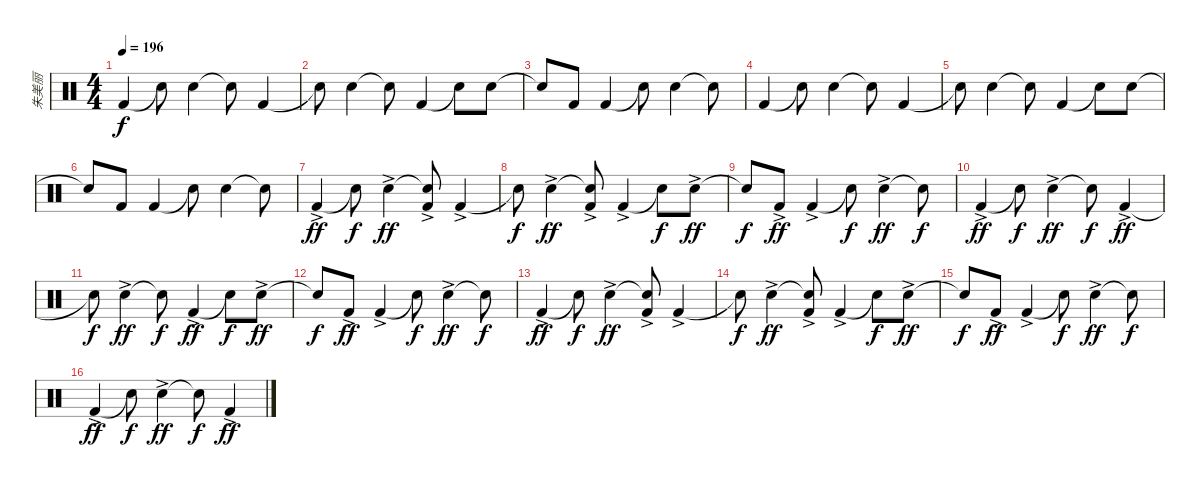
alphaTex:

\track ("朱美丽" "朱美丽") {instrument percussion}
\staff {score}
\articulation defaults
\ts (4 4)
\tempo 196
\clef neutral
\ks c "Kick (hit) 2".4{dy f} "Snare (hit)"{t}.8 "Electric Snare (hit)".4 "Snare (hit)"{t}.8 "Kick (hit) 2".4
|
"Snare (hit)"{t}.8 "Electric Snare (hit)".4 "Snare (hit)"{t}.8 "Kick (hit) 2".4 "Snare (hit)"{t}.8 "Electric Snare (hit)".8 |
"Snare (hit)"{t}.8 "Kick (hit) 2".8 "Kick (hit) 2".4 "Snare (hit)"{t}.8 "Electric Snare (hit)".4 "Snare (hit)"{t}.8 |
"Kick (hit) 2".4 "Snare (hit)"{t}.8 "Electric Snare (hit)".4 "Snare (hit)"{t}.8 "Kick (hit) 2".4 |
"Snare (hit)"{t}.8 "Electric Snare (hit)".4 "Snare (hit)"{t}.8 "Kick (hit) 2".4 "Snare (hit)"{t}.8 "Electric Snare (hit)".8 |
"Snare (hit)"{t}.8 "Kick (hit) 2".8 "Kick (hit) 2".4 "Snare (hit)"{t}.8 "Electric Snare (hit)".4 "Snare (hit)"{t}.8 |
"Kick (hit) 2"{ac}.4{dy ff} "Snare (hit)"{t}.8{dy f} "Electric Snare (hit)"{ac}.4{dy ff} ("Snare (hit)"{t} "Kick (hit) 2"{ac}).8 "Kick (hit) 2"{ac}.4 |
"Snare (hit)"{t}.8{dy f} "Electric Snare (hit)"{ac}.4{dy ff} ("Snare (hit)"{t} "Kick (hit) 2"{ac}).8 "Kick (hit) 2"{ac}.4 "Snare (hit)"{t}.8{dy f} "Electric Snare (hit)"{ac}.8{dy ff} |
"Snare (hit)"{t}.8{dy f} "Kick (hit) 2"{ac}.8{dy ff} "Kick (hit) 2"{ac}.4 "Snare (hit)"{t}.8{dy f} "Electric Snare (hit)"{ac}.4{dy ff} "Snare (hit)"{t}.8{dy f} |
"Kick (hit) 2"{ac}.4{dy ff} "Snare (hit)"{t}.8{dy f} "Electric Snare (hit)"{ac}.4{dy ff} "Snare (hit)"{t}.8{dy f} "Kick (hit) 2"{ac}.4{dy ff} |
"Snare (hit)"{t}.8{dy f} "Electric Snare (hit)"{ac}.4{dy ff} "Snare (hit)"{t}.8{dy f} "Kick (hit) 2"{ac}.4{dy ff} "Snare (hit)"{t}.8{dy f} "Electric Snare (hit)"{ac}.8{dy ff} |
"Snare (hit)"{t}.8{dy f} "Kick (hit) 2"{ac}.8{dy ff} "Kick (hit) 2"{ac}.4 "Snare (hit)"{t}.8{dy f} "Electric Snare (hit)"{ac}.4{dy ff} "Snare (hit)"{t}.8{dy f} |
"Kick (hit) 2"{ac}.4{dy ff} "Snare (hit)"{t}.8{dy f} "Electric Snare (hit)"{ac}.4{dy ff} ("Snare (hit)"{t} "Kick (hit) 2"{ac}).8 "Kick (hit) 2"{ac}.4 |
"Snare (hit)"{t}.8{dy f} "Electric Snare (hit)"{ac}.4{dy ff} ("Snare (hit)"{t} "Kick (hit) 2"{ac}).8 "Kick (hit) 2"{ac}.4 "Snare (hit)"{t}.8{dy f} "Electric Snare (hit)"{ac}.8{dy ff} |
"Snare (hit)"{t}.8{dy f} "Kick (hit) 2"{ac}.8{dy ff} "Kick (hit) 2"{ac}.4 "Snare (hit)"{t}.8{dy f} "Electric Snare (hit)"{ac}.4{dy ff} "Snare (hit)"{t}.8{dy f} |
"Kick (hit) 2"{ac}.4{dy ff} "Snare (hit)"{t}.8{dy f} "Electric Snare (hit)"{ac}.4{dy ff} "Snare (hit)"{t}.8{dy f} "Kick (hit) 2"{ac}.4{dy ff}
